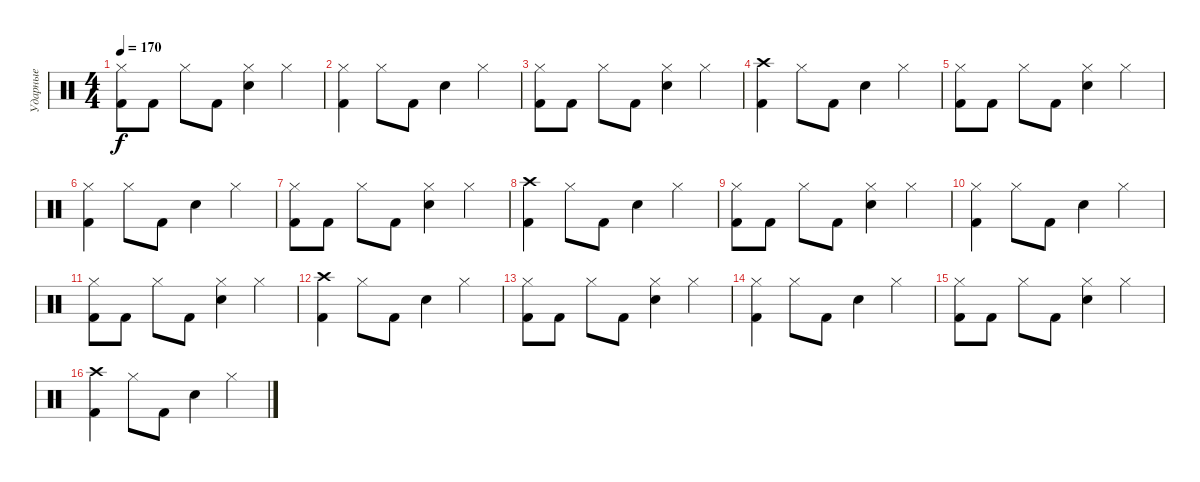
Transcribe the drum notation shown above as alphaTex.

\track ("Ударные" "Ударные") {instrument percussion}
\staff {score}
\articulation defaults
\ts (4 4)
\tempo 170
\clef neutral
\ks c
("Kick (hit) 2" "Hi-Hat (closed)").8{dy f} "Kick (hit) 2".8 "Hi-Hat (closed)".8 "Kick (hit) 2".8 ("Hi-Hat (closed)" "Electric Snare (hit)").4 "Hi-Hat (closed)".4 |
("Kick (hit) 2" "Hi-Hat (closed)").4 "Hi-Hat (closed)".8 "Kick (hit) 2".8 "Electric Snare (hit)".4 "Hi-Hat (closed)".4 |
("Kick (hit) 2" "Hi-Hat (closed)").8 "Kick (hit) 2".8 "Hi-Hat (closed)".8 "Kick (hit) 2".8 ("Hi-Hat (closed)" "Electric Snare (hit)").4 "Hi-Hat (closed)".4 |
("Crash high (hit)" "Kick (hit) 2").4 "Hi-Hat (closed)".8 "Kick (hit) 2".8 "Electric Snare (hit)".4 "Hi-Hat (closed)".4 |
("Kick (hit) 2" "Hi-Hat (closed)").8 "Kick (hit) 2".8 "Hi-Hat (closed)".8 "Kick (hit) 2".8 ("Hi-Hat (closed)" "Electric Snare (hit)").4 "Hi-Hat (closed)".4 |
("Kick (hit) 2" "Hi-Hat (closed)").4 "Hi-Hat (closed)".8 "Kick (hit) 2".8 "Electric Snare (hit)".4 "Hi-Hat (closed)".4 |
("Kick (hit) 2" "Hi-Hat (closed)").8 "Kick (hit) 2".8 "Hi-Hat (closed)".8 "Kick (hit) 2".8 ("Hi-Hat (closed)" "Electric Snare (hit)").4 "Hi-Hat (closed)".4 |
("Crash high (hit)" "Kick (hit) 2").4 "Hi-Hat (closed)".8 "Kick (hit) 2".8 "Electric Snare (hit)".4 "Hi-Hat (closed)".4 |
("Kick (hit) 2" "Hi-Hat (closed)").8 "Kick (hit) 2".8 "Hi-Hat (closed)".8 "Kick (hit) 2".8 ("Hi-Hat (closed)" "Electric Snare (hit)").4 "Hi-Hat (closed)".4 |
("Kick (hit) 2" "Hi-Hat (closed)").4 "Hi-Hat (closed)".8 "Kick (hit) 2".8 "Electric Snare (hit)".4 "Hi-Hat (closed)".4 |
("Kick (hit) 2" "Hi-Hat (closed)").8 "Kick (hit) 2".8 "Hi-Hat (closed)".8 "Kick (hit) 2".8 ("Hi-Hat (closed)" "Electric Snare (hit)").4 "Hi-Hat (closed)".4 |
("Crash high (hit)" "Kick (hit) 2").4 "Hi-Hat (closed)".8 "Kick (hit) 2".8 "Electric Snare (hit)".4 "Hi-Hat (closed)".4 |
("Kick (hit) 2" "Hi-Hat (closed)").8 "Kick (hit) 2".8 "Hi-Hat (closed)".8 "Kick (hit) 2".8 ("Hi-Hat (closed)" "Electric Snare (hit)").4 "Hi-Hat (closed)".4 |
("Kick (hit) 2" "Hi-Hat (closed)").4 "Hi-Hat (closed)".8 "Kick (hit) 2".8 "Electric Snare (hit)".4 "Hi-Hat (closed)".4 |
("Kick (hit) 2" "Hi-Hat (closed)").8 "Kick (hit) 2".8 "Hi-Hat (closed)".8 "Kick (hit) 2".8 ("Hi-Hat (closed)" "Electric Snare (hit)").4 "Hi-Hat (closed)".4 |
("Crash high (hit)" "Kick (hit) 2").4 "Hi-Hat (closed)".8 "Kick (hit) 2".8 "Electric Snare (hit)".4 "Hi-Hat (closed)".4
